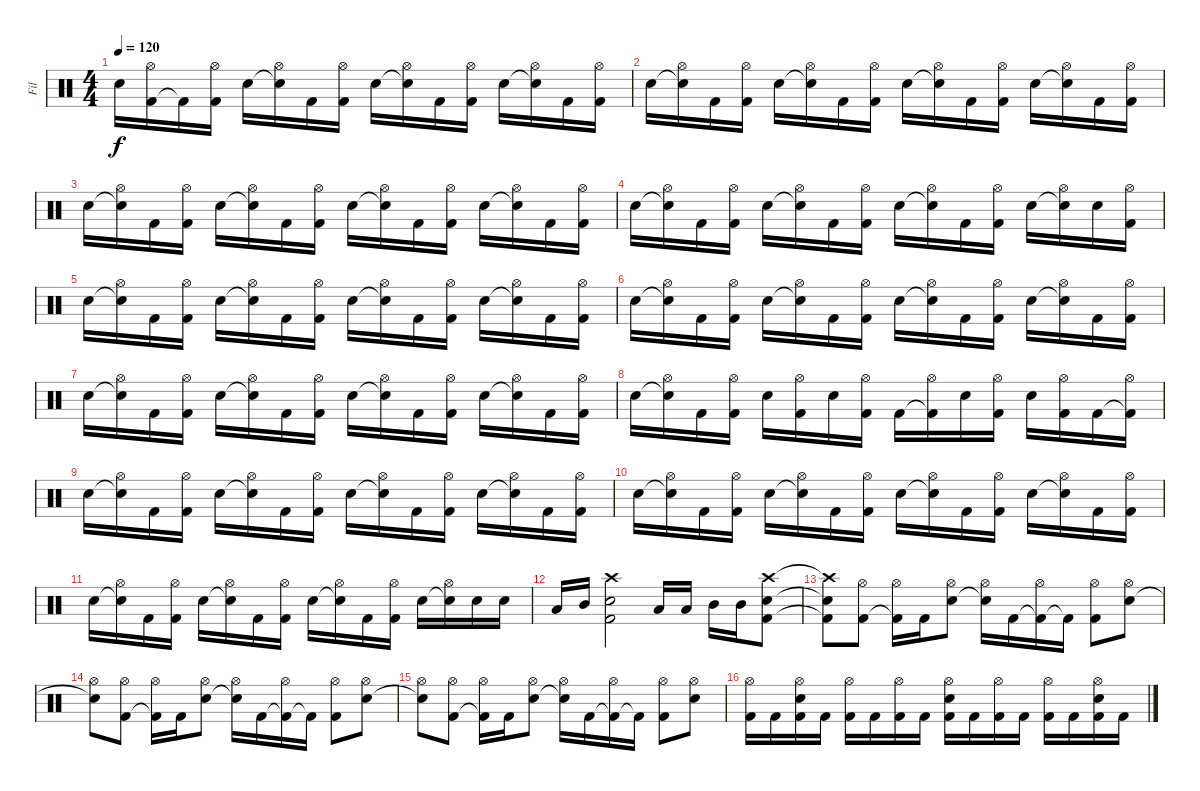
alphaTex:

\track ("Fil" "Fil") {instrument percussion}
\staff {score}
\articulation defaults
\ts (4 4)
\tempo 120
\clef neutral
\ks c "Snare (hit) 2".16{dy f}
("Kick (hit) 2" "Hi-Hat (open)").16 "Kick (hit) 2"{t}.16 ("Kick (hit) 2" "Hi-Hat (open)").16 "Snare (hit) 2".16 ("Snare (hit) 2"{t} "Hi-Hat (open)").16 "Kick (hit) 2".16 ("Kick (hit) 2" "Hi-Hat (open)").16 "Snare (hit) 2".16 ("Snare (hit) 2"{t} "Hi-Hat (open)").16 "Kick (hit) 2".16 ("Kick (hit) 2" "Hi-Hat (open)").16 "Snare (hit) 2".16 ("Snare (hit) 2"{t} "Hi-Hat (open)").16 "Kick (hit) 2".16 ("Kick (hit) 2" "Hi-Hat (open)").16 |
"Snare (hit) 2".16 ("Snare (hit) 2"{t} "Hi-Hat (open)").16 "Kick (hit) 2".16 ("Kick (hit) 2" "Hi-Hat (open)").16 "Snare (hit) 2".16 ("Snare (hit) 2"{t} "Hi-Hat (open)").16 "Kick (hit) 2".16 ("Kick (hit) 2" "Hi-Hat (open)").16 "Snare (hit) 2".16 ("Snare (hit) 2"{t} "Hi-Hat (open)").16 "Kick (hit) 2".16 ("Kick (hit) 2" "Hi-Hat (open)").16 "Snare (hit) 2".16 ("Snare (hit) 2"{t} "Hi-Hat (open)").16 "Kick (hit) 2".16 ("Kick (hit) 2" "Hi-Hat (open)").16 |
"Snare (hit) 2".16 ("Snare (hit) 2"{t} "Hi-Hat (open)").16 "Kick (hit) 2".16 ("Kick (hit) 2" "Hi-Hat (open)").16 "Snare (hit) 2".16 ("Snare (hit) 2"{t} "Hi-Hat (open)").16 "Kick (hit) 2".16 ("Kick (hit) 2" "Hi-Hat (open)").16 "Snare (hit) 2".16 ("Snare (hit) 2"{t} "Hi-Hat (open)").16 "Kick (hit) 2".16 ("Kick (hit) 2" "Hi-Hat (open)").16 "Snare (hit) 2".16 ("Snare (hit) 2"{t} "Hi-Hat (open)").16 "Kick (hit) 2".16 ("Kick (hit) 2" "Hi-Hat (open)").16 |
"Snare (hit) 2".16 ("Snare (hit) 2"{t} "Hi-Hat (open)").16 "Kick (hit) 2".16 ("Kick (hit) 2" "Hi-Hat (open)").16 "Snare (hit) 2".16 ("Snare (hit) 2"{t} "Hi-Hat (open)").16 "Kick (hit) 2".16 ("Kick (hit) 2" "Hi-Hat (open)").16 "Snare (hit) 2".16 ("Snare (hit) 2"{t} "Hi-Hat (open)").16 "Kick (hit) 2".16 ("Kick (hit) 2" "Hi-Hat (open)").16 "Snare (hit) 2".16 ("Snare (hit) 2"{t} "Hi-Hat (open)").16 "Snare (hit) 2".16 ("Kick (hit) 2" "Hi-Hat (open)").16 |
"Snare (hit) 2".16 ("Snare (hit) 2"{t} "Hi-Hat (open)").16 "Kick (hit) 2".16 ("Kick (hit) 2" "Hi-Hat (open)").16 "Snare (hit) 2".16 ("Snare (hit) 2"{t} "Hi-Hat (open)").16 "Kick (hit) 2".16 ("Kick (hit) 2" "Hi-Hat (open)").16 "Snare (hit) 2".16 ("Snare (hit) 2"{t} "Hi-Hat (open)").16 "Kick (hit) 2".16 ("Kick (hit) 2" "Hi-Hat (open)").16 "Snare (hit) 2".16 ("Snare (hit) 2"{t} "Hi-Hat (open)").16 "Kick (hit) 2".16 ("Kick (hit) 2" "Hi-Hat (open)").16 |
"Snare (hit) 2".16 ("Snare (hit) 2"{t} "Hi-Hat (open)").16 "Kick (hit) 2".16 ("Kick (hit) 2" "Hi-Hat (open)").16 "Snare (hit) 2".16 ("Snare (hit) 2"{t} "Hi-Hat (open)").16 "Kick (hit) 2".16 ("Kick (hit) 2" "Hi-Hat (open)").16 "Snare (hit) 2".16 ("Snare (hit) 2"{t} "Hi-Hat (open)").16 "Kick (hit) 2".16 ("Kick (hit) 2" "Hi-Hat (open)").16 "Snare (hit) 2".16 ("Snare (hit) 2"{t} "Hi-Hat (open)").16 "Kick (hit) 2".16 ("Kick (hit) 2" "Hi-Hat (open)").16 |
"Snare (hit) 2".16 ("Snare (hit) 2"{t} "Hi-Hat (open)").16 "Kick (hit) 2".16 ("Kick (hit) 2" "Hi-Hat (open)").16 "Snare (hit) 2".16 ("Snare (hit) 2"{t} "Hi-Hat (open)").16 "Kick (hit) 2".16 ("Kick (hit) 2" "Hi-Hat (open)").16 "Snare (hit) 2".16 ("Snare (hit) 2"{t} "Hi-Hat (open)").16 "Kick (hit) 2".16 ("Kick (hit) 2" "Hi-Hat (open)").16 "Snare (hit) 2".16 ("Snare (hit) 2"{t} "Hi-Hat (open)").16 "Kick (hit) 2".16 ("Kick (hit) 2" "Hi-Hat (open)").16 |
"Snare (hit) 2".16 ("Snare (hit) 2"{t} "Hi-Hat (open)").16 "Kick (hit) 2".16 ("Kick (hit) 2" "Hi-Hat (open)").16 "Snare (hit) 2".16 ("Kick (hit) 2" "Hi-Hat (open)").16 "Snare (hit) 2".16 ("Kick (hit) 2" "Hi-Hat (open)").16 "Kick (hit) 2".16 ("Kick (hit) 2"{t} "Hi-Hat (open)").16 "Snare (hit) 2".16 ("Kick (hit) 2" "Hi-Hat (open)").16 "Snare (hit) 2".16 ("Kick (hit) 2" "Hi-Hat (open)").16 "Kick (hit) 2".16 ("Kick (hit) 2"{t} "Hi-Hat (open)").16 |
"Snare (hit) 2".16 ("Snare (hit) 2"{t} "Hi-Hat (open)").16 "Kick (hit) 2".16 ("Kick (hit) 2" "Hi-Hat (open)").16 "Snare (hit) 2".16 ("Snare (hit) 2"{t} "Hi-Hat (open)").16 "Kick (hit) 2".16 ("Kick (hit) 2" "Hi-Hat (open)").16 "Snare (hit) 2".16 ("Snare (hit) 2"{t} "Hi-Hat (open)").16 "Kick (hit) 2".16 ("Kick (hit) 2" "Hi-Hat (open)").16 "Snare (hit) 2".16 ("Snare (hit) 2"{t} "Hi-Hat (open)").16 "Kick (hit) 2".16 ("Kick (hit) 2" "Hi-Hat (open)").16 |
"Snare (hit) 2".16 ("Snare (hit) 2"{t} "Hi-Hat (open)").16 "Kick (hit) 2".16 ("Kick (hit) 2" "Hi-Hat (open)").16 "Snare (hit) 2".16 ("Snare (hit) 2"{t} "Hi-Hat (open)").16 "Kick (hit) 2".16 ("Kick (hit) 2" "Hi-Hat (open)").16 "Snare (hit) 2".16 ("Snare (hit) 2"{t} "Hi-Hat (open)").16 "Kick (hit) 2".16 ("Kick (hit) 2" "Hi-Hat (open)").16 "Snare (hit) 2".16 ("Snare (hit) 2"{t} "Hi-Hat (open)").16 "Kick (hit) 2".16 ("Kick (hit) 2" "Hi-Hat (open)").16 |
"Snare (hit) 2".16 ("Snare (hit) 2"{t} "Hi-Hat (open)").16 "Kick (hit) 2".16 ("Kick (hit) 2" "Hi-Hat (open)").16 "Snare (hit) 2".16 ("Snare (hit) 2"{t} "Hi-Hat (open)").16 "Kick (hit) 2".16 ("Kick (hit) 2" "Hi-Hat (open)").16 "Snare (hit) 2".16 ("Snare (hit) 2"{t} "Hi-Hat (open)").16 "Kick (hit) 2".16 ("Kick (hit) 2" "Hi-Hat (open)").16 "Snare (hit) 2".16 ("Snare (hit) 2"{t} "Hi-Hat (open)").16 "Snare (hit) 2".16 "Snare (hit) 2".16 |
"Low Tom (hit)".16 "Mid Tom (hit)".16 ("Crash high (hit)" "Snare (hit) 2" "Kick (hit) 2").2 "Low Tom (hit)".16 "Low Tom (hit)".16 "Mid Tom (hit)".16 "Mid Tom (hit)".16 ("Crash high (hit)" "Snare (hit) 2" "Kick (hit) 2").8 |
("Crash high (hit)"{t} "Snare (hit) 2"{t} "Kick (hit) 2"{t}).8 ("Kick (hit) 2" "Hi-Hat (open)").8 ("Kick (hit) 2"{t} "Hi-Hat (open)").16 "Kick (hit) 2".16 ("Snare (hit) 2" "Hi-Hat (open)").8 ("Snare (hit) 2"{t} "Hi-Hat (open)").16 "Kick (hit) 2".16 ("Kick (hit) 2"{t} "Hi-Hat (open)").16 "Kick (hit) 2"{t}.16 ("Kick (hit) 2" "Hi-Hat (open)").8 ("Snare (hit) 2" "Hi-Hat (open)").8 |
("Snare (hit) 2"{t} "Hi-Hat (open)").8 ("Kick (hit) 2" "Hi-Hat (open)").8 ("Kick (hit) 2"{t} "Hi-Hat (open)").16 "Kick (hit) 2".16 ("Snare (hit) 2" "Hi-Hat (open)").8 ("Snare (hit) 2"{t} "Hi-Hat (open)").16 "Kick (hit) 2".16 ("Kick (hit) 2"{t} "Hi-Hat (open)").16 "Kick (hit) 2"{t}.16 ("Kick (hit) 2" "Hi-Hat (open)").8 ("Snare (hit) 2" "Hi-Hat (open)").8 |
("Snare (hit) 2"{t} "Hi-Hat (open)").8 ("Kick (hit) 2" "Hi-Hat (open)").8 ("Kick (hit) 2"{t} "Hi-Hat (open)").16 "Kick (hit) 2".16 ("Snare (hit) 2" "Hi-Hat (open)").8 ("Snare (hit) 2"{t} "Hi-Hat (open)").16 "Kick (hit) 2".16 ("Kick (hit) 2"{t} "Hi-Hat (open)").16 "Kick (hit) 2"{t}.16 ("Kick (hit) 2" "Hi-Hat (open)").8 ("Snare (hit) 2" "Hi-Hat (open)").8 |
("Kick (hit) 2" "Hi-Hat (open)").16 "Kick (hit) 2".16 ("Kick (hit) 2" "Snare (hit) 2" "Hi-Hat (open)").16 "Kick (hit) 2".16 ("Kick (hit) 2" "Hi-Hat (open)").16 "Kick (hit) 2".16 ("Kick (hit) 2" "Hi-Hat (open)").16 "Kick (hit) 2".16 ("Kick (hit) 2" "Snare (hit) 2" "Hi-Hat (open)").16 "Kick (hit) 2".16 ("Kick (hit) 2" "Hi-Hat (open)").16 "Kick (hit) 2".16 ("Kick (hit) 2" "Hi-Hat (open)").16 "Kick (hit) 2".16 ("Kick (hit) 2" "Snare (hit) 2" "Hi-Hat (open)").16 "Kick (hit) 2".16
